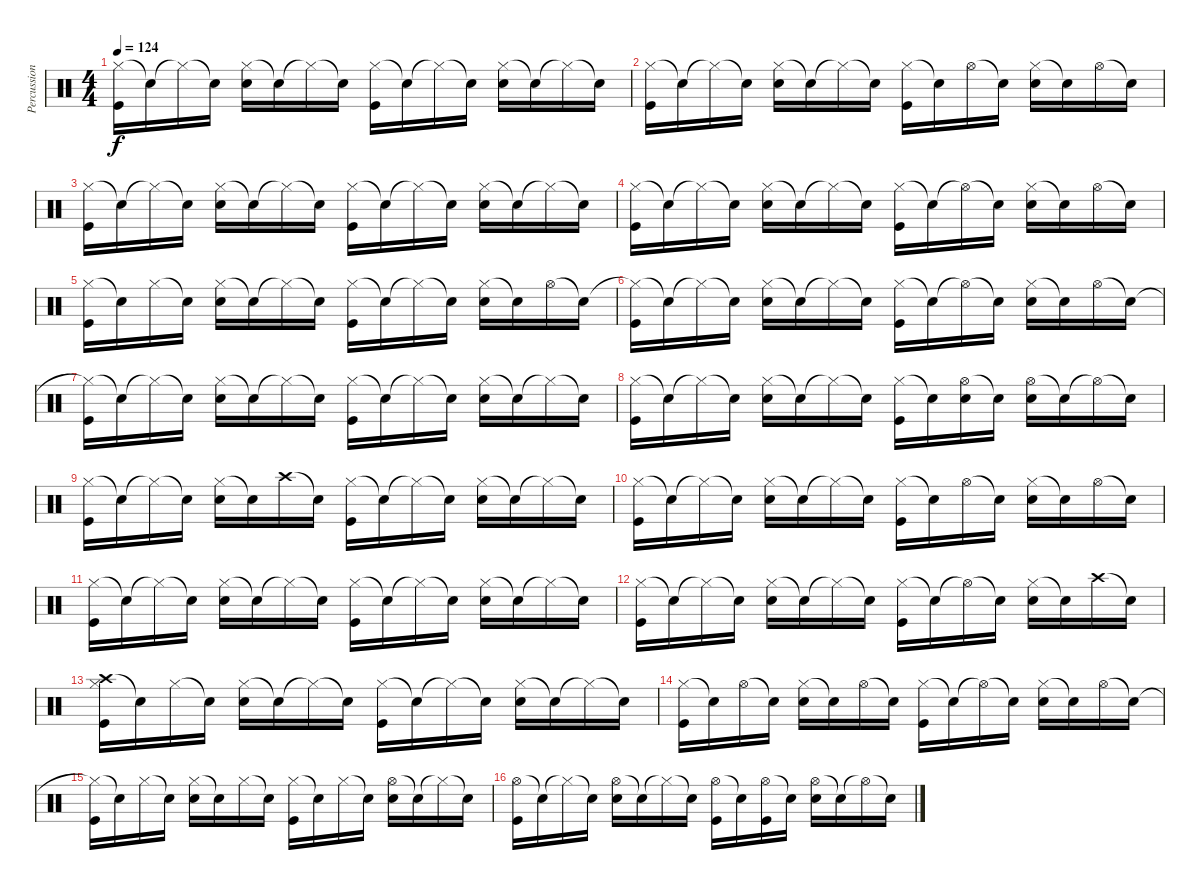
\track ("Percussion" "Percussion") {instrument percussion}
\staff {score}
\articulation defaults
\ts (4 4)
\tempo 124
\clef neutral
\ks c
("Hi-Hat (closed)" "Kick (hit)").16{dy f} "Snare (hit)"{t}.16 "Hi-Hat (closed)"{t}.16 "Snare (hit)"{t}.16 ("Hi-Hat (closed)" "Electric Snare (hit)").16 "Snare (hit)"{t}.16 "Hi-Hat (closed)"{t}.16 "Snare (hit)"{t}.16 ("Hi-Hat (closed)" "Kick (hit)").16 "Snare (hit)"{t}.16 "Hi-Hat (closed)"{t}.16 "Snare (hit)"{t}.16 ("Hi-Hat (closed)" "Electric Snare (hit)").16 "Snare (hit)"{t}.16 "Hi-Hat (closed)"{t}.16 "Snare (hit)"{t}.16 |
("Hi-Hat (closed)" "Kick (hit)").16 "Snare (hit)"{t}.16 "Hi-Hat (closed)"{t}.16 "Snare (hit)"{t}.16 ("Hi-Hat (closed)" "Electric Snare (hit)").16 "Snare (hit)"{t}.16 "Hi-Hat (closed)"{t}.16 "Snare (hit)"{t}.16 ("Hi-Hat (closed)" "Kick (hit)").16 "Snare (hit)"{t}.16 "Hi-Hat (open)".16 "Snare (hit)"{t}.16 ("Hi-Hat (closed)" "Electric Snare (hit)").16 "Snare (hit)"{t}.16 "Hi-Hat (open)".16 "Snare (hit)"{t}.16 |
("Hi-Hat (closed)" "Kick (hit)").16 "Snare (hit)"{t}.16 "Hi-Hat (closed)"{t}.16 "Snare (hit)"{t}.16 ("Hi-Hat (closed)" "Electric Snare (hit)").16 "Snare (hit)"{t}.16 "Hi-Hat (closed)"{t}.16 "Snare (hit)"{t}.16 ("Hi-Hat (closed)" "Kick (hit)").16 "Snare (hit)"{t}.16 "Hi-Hat (closed)"{t}.16 "Snare (hit)"{t}.16 ("Hi-Hat (closed)" "Electric Snare (hit)").16 "Snare (hit)"{t}.16 "Hi-Hat (closed)"{t}.16 "Snare (hit)"{t}.16 |
("Hi-Hat (closed)" "Kick (hit)").16 "Snare (hit)"{t}.16 "Hi-Hat (closed)"{t}.16 "Snare (hit)"{t}.16 ("Hi-Hat (closed)" "Electric Snare (hit)").16 "Snare (hit)"{t}.16 "Hi-Hat (closed)"{t}.16 "Snare (hit)"{t}.16 ("Hi-Hat (closed)" "Kick (hit)").16 "Snare (hit)"{t}.16 "Hi-Hat (open)"{t}.16 "Snare (hit)"{t}.16 ("Hi-Hat (closed)" "Electric Snare (hit)").16 "Snare (hit)"{t}.16 "Hi-Hat (open)".16 "Snare (hit)"{t}.16 |
("Hi-Hat (closed)" "Kick (hit)").16 "Snare (hit)"{t}.16 "Hi-Hat (closed)".16 "Snare (hit)"{t}.16 ("Hi-Hat (closed)" "Electric Snare (hit)").16 "Snare (hit)"{t}.16 "Hi-Hat (closed)"{t}.16 "Snare (hit)"{t}.16 ("Hi-Hat (closed)" "Kick (hit)").16 "Snare (hit)"{t}.16 "Hi-Hat (closed)"{t}.16 "Snare (hit)"{t}.16 ("Hi-Hat (closed)" "Electric Snare (hit)").16 "Snare (hit)"{t}.16 "Hi-Hat (open)".16 "Snare (hit)"{t}.16 |
("Hi-Hat (closed)"{t} "Kick (hit)").16 "Snare (hit)"{t}.16 "Hi-Hat (closed)"{t}.16 "Snare (hit)"{t}.16 ("Hi-Hat (closed)" "Electric Snare (hit)").16 "Snare (hit)"{t}.16 "Hi-Hat (closed)"{t}.16 "Snare (hit)"{t}.16 ("Hi-Hat (closed)" "Kick (hit)").16 "Snare (hit)"{t}.16 "Hi-Hat (open)"{t}.16 "Snare (hit)"{t}.16 ("Hi-Hat (closed)" "Electric Snare (hit)").16 "Snare (hit)"{t}.16 "Hi-Hat (open)".16 "Snare (hit)"{t}.16 |
("Hi-Hat (closed)"{t} "Kick (hit)").16 "Snare (hit)"{t}.16 "Hi-Hat (closed)"{t}.16 "Snare (hit)"{t}.16 ("Hi-Hat (closed)" "Electric Snare (hit)").16 "Snare (hit)"{t}.16 "Hi-Hat (closed)"{t}.16 "Snare (hit)"{t}.16 ("Hi-Hat (closed)" "Kick (hit)").16 "Snare (hit)"{t}.16 "Hi-Hat (closed)"{t}.16 "Snare (hit)"{t}.16 ("Hi-Hat (closed)" "Electric Snare (hit)").16 "Snare (hit)"{t}.16 "Hi-Hat (closed)"{t}.16 "Snare (hit)"{t}.16 |
("Hi-Hat (closed)" "Kick (hit)").16 "Snare (hit)"{t}.16 "Hi-Hat (closed)"{t}.16 "Snare (hit)"{t}.16 ("Hi-Hat (closed)" "Electric Snare (hit)").16 "Snare (hit)"{t}.16 "Hi-Hat (closed)"{t}.16 "Snare (hit)"{t}.16 ("Hi-Hat (closed)" "Kick (hit)").16 "Snare (hit)"{t}.16 ("Hi-Hat (open)" "Electric Snare (hit)").16 "Snare (hit)"{t}.16 ("Hi-Hat (open)" "Electric Snare (hit)").16 "Snare (hit)"{t}.16 "Hi-Hat (open)"{t}.16 "Snare (hit)"{t}.16 |
("Hi-Hat (closed)" "Kick (hit)").16 "Snare (hit)"{t}.16 "Hi-Hat (closed)"{t}.16 "Snare (hit)"{t}.16 ("Hi-Hat (closed)" "Electric Snare (hit)").16 "Snare (hit)"{t}.16 "Crash high (hit)".16 "Snare (hit)"{t}.16 ("Hi-Hat (closed)" "Kick (hit)").16 "Snare (hit)"{t}.16 "Hi-Hat (closed)"{t}.16 "Snare (hit)"{t}.16 ("Hi-Hat (closed)" "Electric Snare (hit)").16 "Snare (hit)"{t}.16 "Hi-Hat (closed)"{t}.16 "Snare (hit)"{t}.16 |
("Hi-Hat (closed)" "Kick (hit)").16 "Snare (hit)"{t}.16 "Hi-Hat (closed)"{t}.16 "Snare (hit)"{t}.16 ("Hi-Hat (closed)" "Electric Snare (hit)").16 "Snare (hit)"{t}.16 "Hi-Hat (closed)"{t}.16 "Snare (hit)"{t}.16 ("Hi-Hat (closed)" "Kick (hit)").16 "Snare (hit)"{t}.16 "Hi-Hat (open)".16 "Snare (hit)"{t}.16 ("Hi-Hat (closed)" "Electric Snare (hit)").16 "Snare (hit)"{t}.16 "Hi-Hat (open)".16 "Snare (hit)"{t}.16 |
("Hi-Hat (closed)" "Kick (hit)").16 "Snare (hit)"{t}.16 "Hi-Hat (closed)"{t}.16 "Snare (hit)"{t}.16 ("Hi-Hat (closed)" "Electric Snare (hit)").16 "Snare (hit)"{t}.16 "Hi-Hat (closed)"{t}.16 "Snare (hit)"{t}.16 ("Hi-Hat (closed)" "Kick (hit)").16 "Snare (hit)"{t}.16 "Hi-Hat (closed)"{t}.16 "Snare (hit)"{t}.16 ("Hi-Hat (closed)" "Electric Snare (hit)").16 "Snare (hit)"{t}.16 "Hi-Hat (closed)"{t}.16 "Snare (hit)"{t}.16 |
("Hi-Hat (closed)" "Kick (hit)").16 "Snare (hit)"{t}.16 "Hi-Hat (closed)"{t}.16 "Snare (hit)"{t}.16 ("Hi-Hat (closed)" "Electric Snare (hit)").16 "Snare (hit)"{t}.16 "Hi-Hat (closed)"{t}.16 "Snare (hit)"{t}.16 ("Hi-Hat (closed)" "Kick (hit)").16 "Snare (hit)"{t}.16 "Hi-Hat (open)"{t}.16 "Snare (hit)"{t}.16 ("Hi-Hat (closed)" "Electric Snare (hit)").16 "Snare (hit)"{t}.16 "Crash high (hit)".16 "Snare (hit)"{t}.16 |
("Crash high (hit)" "Hi-Hat (closed)" "Kick (hit)").16 "Snare (hit)"{t}.16 "Hi-Hat (closed)".16 "Snare (hit)"{t}.16 ("Hi-Hat (closed)" "Electric Snare (hit)").16 "Snare (hit)"{t}.16 "Hi-Hat (closed)"{t}.16 "Snare (hit)"{t}.16 ("Hi-Hat (closed)" "Kick (hit)").16 "Snare (hit)"{t}.16 "Hi-Hat (closed)"{t}.16 "Snare (hit)"{t}.16 ("Hi-Hat (closed)" "Electric Snare (hit)").16 "Snare (hit)"{t}.16 "Hi-Hat (closed)"{t}.16 "Snare (hit)"{t}.16 |
("Hi-Hat (closed)" "Kick (hit)").16 "Snare (hit)"{t}.16 "Hi-Hat (open)".16 "Snare (hit)"{t}.16 ("Hi-Hat (closed)" "Electric Snare (hit)").16 "Snare (hit)"{t}.16 "Hi-Hat (open)".16 "Snare (hit)"{t}.16 ("Hi-Hat (closed)" "Kick (hit)").16 "Snare (hit)"{t}.16 "Hi-Hat (open)"{t}.16 "Snare (hit)"{t}.16 ("Hi-Hat (closed)" "Electric Snare (hit)").16 "Snare (hit)"{t}.16 "Hi-Hat (open)".16 "Snare (hit)"{t}.16 |
("Hi-Hat (closed)"{t} "Kick (hit)").16 "Snare (hit)"{t}.16 "Hi-Hat (closed)".16 "Snare (hit)"{t}.16 ("Hi-Hat (closed)" "Electric Snare (hit)").16 "Snare (hit)"{t}.16 "Hi-Hat (closed)".16 "Snare (hit)"{t}.16 ("Hi-Hat (closed)" "Kick (hit)").16 "Snare (hit)"{t}.16 "Hi-Hat (closed)".16 "Snare (hit)"{t}.16 ("Hi-Hat (open)" "Electric Snare (hit)").16 "Snare (hit)"{t}.16 "Hi-Hat (closed)"{t}.16 "Snare (hit)"{t}.16 |
("Hi-Hat (open)" "Kick (hit)").16 "Snare (hit)"{t}.16 "Hi-Hat (closed)"{t}.16 "Snare (hit)"{t}.16 ("Hi-Hat (open)" "Electric Snare (hit)").16 "Snare (hit)"{t}.16 "Hi-Hat (closed)"{t}.16 "Snare (hit)"{t}.16 ("Hi-Hat (open)" "Kick (hit)").16 "Snare (hit)"{t}.16 ("Hi-Hat (open)" "Kick (hit)").16 "Snare (hit)"{t}.16 ("Hi-Hat (open)" "Electric Snare (hit)").16 "Snare (hit)"{t}.16 "Hi-Hat (open)"{t}.16 "Snare (hit)"{t}.16
